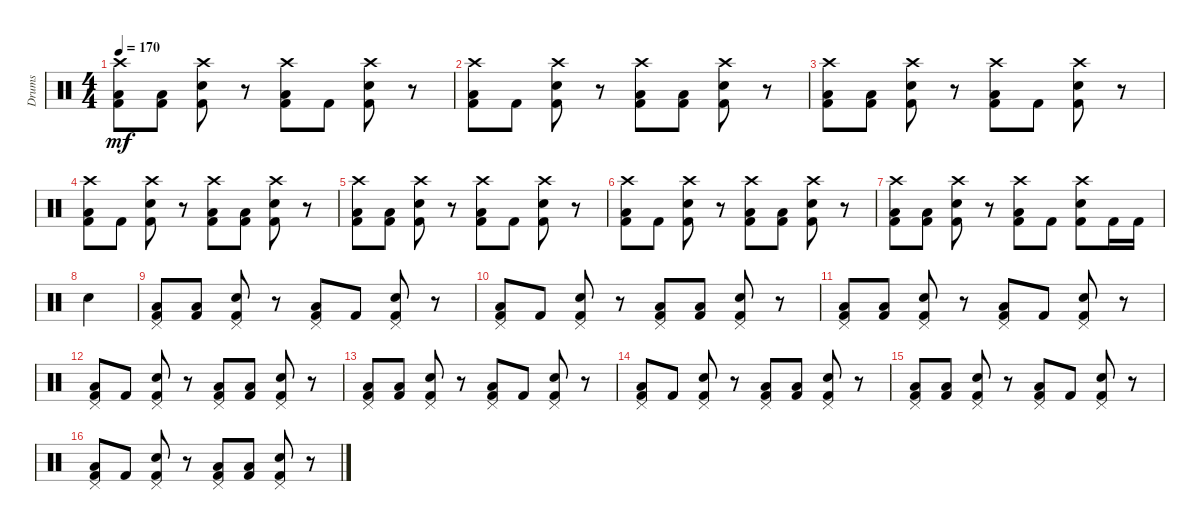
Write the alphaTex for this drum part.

\track ("Drums" "Drums") {instrument percussion}
\staff {score}
\articulation defaults
\ts (4 4)
\tempo 170
\clef neutral
\ks c
("Crash high (hit)" "Low Tom (hit)" "Kick (hit) 2").8{dy mf} ("Low Tom (hit)" "Kick (hit) 2").8 ("Crash high (hit)" "Electric Snare (hit)" "Kick (hit) 2").8 r.8 ("Crash high (hit)" "Low Tom (hit)" "Kick (hit) 2").8 "Kick (hit) 2".8 ("Crash high (hit)" "Electric Snare (hit)" "Kick (hit) 2").8 r.8 |
("Crash high (hit)" "Low Tom (hit)" "Kick (hit) 2").8 "Kick (hit) 2".8 ("Crash high (hit)" "Electric Snare (hit)" "Kick (hit) 2").8 r.8 ("Crash high (hit)" "Low Tom (hit)" "Kick (hit) 2").8 ("Low Tom (hit)" "Kick (hit) 2").8 ("Crash high (hit)" "Electric Snare (hit)" "Kick (hit) 2").8 r.8 |
("Crash high (hit)" "Low Tom (hit)" "Kick (hit) 2").8 ("Low Tom (hit)" "Kick (hit) 2").8 ("Crash high (hit)" "Electric Snare (hit)" "Kick (hit) 2").8 r.8 ("Crash high (hit)" "Low Tom (hit)" "Kick (hit) 2").8 "Kick (hit) 2".8 ("Crash high (hit)" "Electric Snare (hit)" "Kick (hit) 2").8 r.8 |
("Crash high (hit)" "Low Tom (hit)" "Kick (hit) 2").8 "Kick (hit) 2".8 ("Crash high (hit)" "Electric Snare (hit)" "Kick (hit) 2").8 r.8 ("Crash high (hit)" "Low Tom (hit)" "Kick (hit) 2").8 ("Low Tom (hit)" "Kick (hit) 2").8 ("Crash high (hit)" "Electric Snare (hit)" "Kick (hit) 2").8 r.8 |
("Crash high (hit)" "Low Tom (hit)" "Kick (hit) 2").8 ("Low Tom (hit)" "Kick (hit) 2").8 ("Crash high (hit)" "Electric Snare (hit)" "Kick (hit) 2").8 r.8 ("Crash high (hit)" "Low Tom (hit)" "Kick (hit) 2").8 "Kick (hit) 2".8 ("Crash high (hit)" "Electric Snare (hit)" "Kick (hit) 2").8 r.8 |
("Crash high (hit)" "Low Tom (hit)" "Kick (hit) 2").8 "Kick (hit) 2".8 ("Crash high (hit)" "Electric Snare (hit)" "Kick (hit) 2").8 r.8 ("Crash high (hit)" "Low Tom (hit)" "Kick (hit) 2").8 ("Low Tom (hit)" "Kick (hit) 2").8 ("Crash high (hit)" "Electric Snare (hit)" "Kick (hit) 2").8 r.8 |
("Crash high (hit)" "Low Tom (hit)" "Kick (hit) 2").8 ("Low Tom (hit)" "Kick (hit) 2").8 ("Crash high (hit)" "Electric Snare (hit)" "Kick (hit) 2").8 r.8 ("Crash high (hit)" "Low Tom (hit)" "Kick (hit) 2").8 "Kick (hit) 2".8 ("Crash high (hit)" "Electric Snare (hit)" "Kick (hit) 2").8 "Kick (hit) 2".16 "Kick (hit) 2".16 |
"Electric Snare (hit)".4 |
("Pedal Hi-Hat (hit)" "Low Tom (hit)" "Kick (hit) 2").8 ("Low Tom (hit)" "Kick (hit) 2").8 ("Pedal Hi-Hat (hit)" "Electric Snare (hit)" "Kick (hit) 2").8 r.8 ("Pedal Hi-Hat (hit)" "Low Tom (hit)" "Kick (hit) 2").8 "Kick (hit) 2".8 ("Pedal Hi-Hat (hit)" "Electric Snare (hit)" "Kick (hit) 2").8 r.8 |
("Pedal Hi-Hat (hit)" "Low Tom (hit)" "Kick (hit) 2").8 "Kick (hit) 2".8 ("Pedal Hi-Hat (hit)" "Electric Snare (hit)" "Kick (hit) 2").8 r.8 ("Pedal Hi-Hat (hit)" "Low Tom (hit)" "Kick (hit) 2").8 ("Low Tom (hit)" "Kick (hit) 2").8 ("Pedal Hi-Hat (hit)" "Electric Snare (hit)" "Kick (hit) 2").8 r.8 |
("Pedal Hi-Hat (hit)" "Low Tom (hit)" "Kick (hit) 2").8 ("Low Tom (hit)" "Kick (hit) 2").8 ("Pedal Hi-Hat (hit)" "Electric Snare (hit)" "Kick (hit) 2").8 r.8 ("Pedal Hi-Hat (hit)" "Low Tom (hit)" "Kick (hit) 2").8 "Kick (hit) 2".8 ("Pedal Hi-Hat (hit)" "Electric Snare (hit)" "Kick (hit) 2").8 r.8 |
("Pedal Hi-Hat (hit)" "Low Tom (hit)" "Kick (hit) 2").8 "Kick (hit) 2".8 ("Pedal Hi-Hat (hit)" "Electric Snare (hit)" "Kick (hit) 2").8 r.8 ("Pedal Hi-Hat (hit)" "Low Tom (hit)" "Kick (hit) 2").8 ("Low Tom (hit)" "Kick (hit) 2").8 ("Pedal Hi-Hat (hit)" "Electric Snare (hit)" "Kick (hit) 2").8 r.8 |
("Pedal Hi-Hat (hit)" "Low Tom (hit)" "Kick (hit) 2").8 ("Low Tom (hit)" "Kick (hit) 2").8 ("Pedal Hi-Hat (hit)" "Electric Snare (hit)" "Kick (hit) 2").8 r.8 ("Pedal Hi-Hat (hit)" "Low Tom (hit)" "Kick (hit) 2").8 "Kick (hit) 2".8 ("Pedal Hi-Hat (hit)" "Electric Snare (hit)" "Kick (hit) 2").8 r.8 |
("Pedal Hi-Hat (hit)" "Low Tom (hit)" "Kick (hit) 2").8 "Kick (hit) 2".8 ("Pedal Hi-Hat (hit)" "Electric Snare (hit)" "Kick (hit) 2").8 r.8 ("Pedal Hi-Hat (hit)" "Low Tom (hit)" "Kick (hit) 2").8 ("Low Tom (hit)" "Kick (hit) 2").8 ("Pedal Hi-Hat (hit)" "Electric Snare (hit)" "Kick (hit) 2").8 r.8 |
("Pedal Hi-Hat (hit)" "Low Tom (hit)" "Kick (hit) 2").8 ("Low Tom (hit)" "Kick (hit) 2").8 ("Pedal Hi-Hat (hit)" "Electric Snare (hit)" "Kick (hit) 2").8 r.8 ("Pedal Hi-Hat (hit)" "Low Tom (hit)" "Kick (hit) 2").8 "Kick (hit) 2".8 ("Pedal Hi-Hat (hit)" "Electric Snare (hit)" "Kick (hit) 2").8 r.8 |
("Pedal Hi-Hat (hit)" "Low Tom (hit)" "Kick (hit) 2").8 "Kick (hit) 2".8 ("Pedal Hi-Hat (hit)" "Electric Snare (hit)" "Kick (hit) 2").8 r.8 ("Pedal Hi-Hat (hit)" "Low Tom (hit)" "Kick (hit) 2").8 ("Low Tom (hit)" "Kick (hit) 2").8 ("Pedal Hi-Hat (hit)" "Electric Snare (hit)" "Kick (hit) 2").8 r.8
